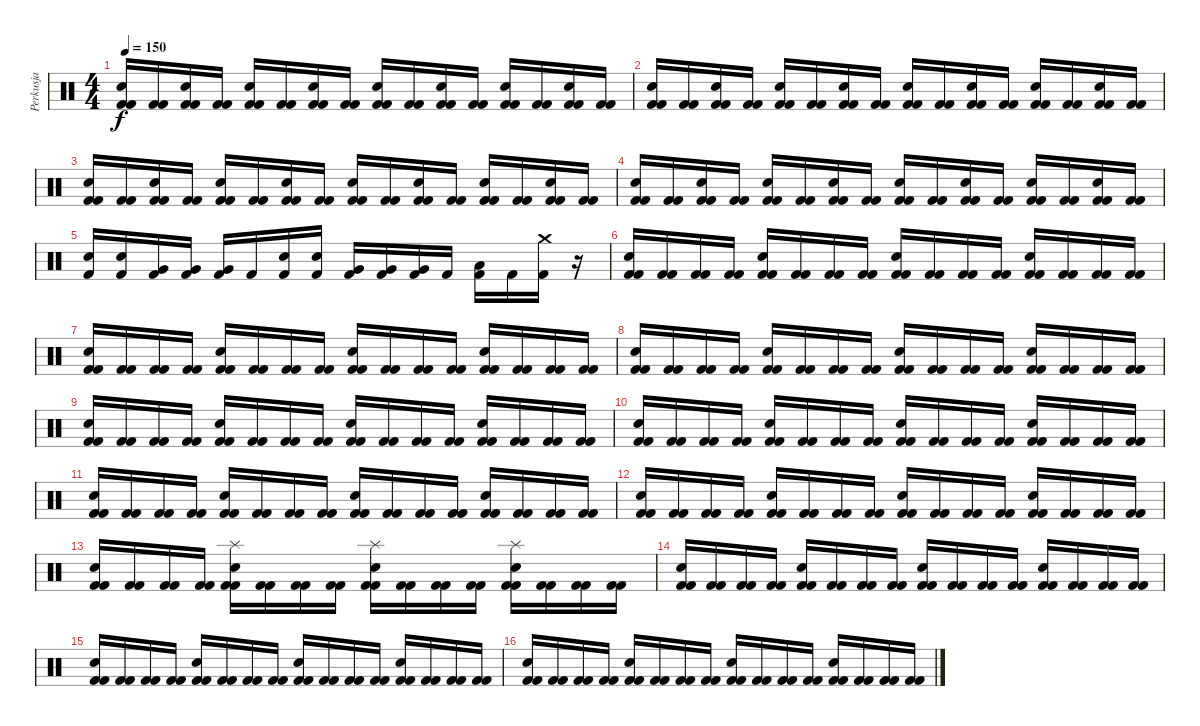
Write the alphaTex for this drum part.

\track ("Perkusja" "Perkusja") {instrument percussion}
\staff {score}
\articulation defaults
\ts (4 4)
\tempo 150
\clef neutral
\ks c
("Snare (hit) 2" "Kick (hit) 2" "Kick (hit) 2").16{dy f} ("Kick (hit) 2" "Kick (hit) 2").16 ("Snare (hit) 2" "Kick (hit) 2" "Kick (hit) 2").16 ("Kick (hit) 2" "Kick (hit) 2").16 ("Snare (hit) 2" "Kick (hit) 2" "Kick (hit) 2").16 ("Kick (hit) 2" "Kick (hit) 2").16 ("Snare (hit) 2" "Kick (hit) 2" "Kick (hit) 2").16 ("Kick (hit) 2" "Kick (hit) 2").16 ("Snare (hit) 2" "Kick (hit) 2" "Kick (hit) 2").16 ("Kick (hit) 2" "Kick (hit) 2").16 ("Snare (hit) 2" "Kick (hit) 2" "Kick (hit) 2").16 ("Kick (hit) 2" "Kick (hit) 2").16 ("Snare (hit) 2" "Kick (hit) 2" "Kick (hit) 2").16 ("Kick (hit) 2" "Kick (hit) 2").16 ("Snare (hit) 2" "Kick (hit) 2" "Kick (hit) 2").16 ("Kick (hit) 2" "Kick (hit) 2").16 |
("Snare (hit) 2" "Kick (hit) 2" "Kick (hit) 2").16 ("Kick (hit) 2" "Kick (hit) 2").16 ("Snare (hit) 2" "Kick (hit) 2" "Kick (hit) 2").16 ("Kick (hit) 2" "Kick (hit) 2").16 ("Snare (hit) 2" "Kick (hit) 2" "Kick (hit) 2").16 ("Kick (hit) 2" "Kick (hit) 2").16 ("Snare (hit) 2" "Kick (hit) 2" "Kick (hit) 2").16 ("Kick (hit) 2" "Kick (hit) 2").16 ("Snare (hit) 2" "Kick (hit) 2" "Kick (hit) 2").16 ("Kick (hit) 2" "Kick (hit) 2").16 ("Snare (hit) 2" "Kick (hit) 2" "Kick (hit) 2").16 ("Kick (hit) 2" "Kick (hit) 2").16 ("Snare (hit) 2" "Kick (hit) 2" "Kick (hit) 2").16 ("Kick (hit) 2" "Kick (hit) 2").16 ("Snare (hit) 2" "Kick (hit) 2" "Kick (hit) 2").16 ("Kick (hit) 2" "Kick (hit) 2").16 |
("Snare (hit) 2" "Kick (hit) 2" "Kick (hit) 2").16 ("Kick (hit) 2" "Kick (hit) 2").16 ("Snare (hit) 2" "Kick (hit) 2" "Kick (hit) 2").16 ("Kick (hit) 2" "Kick (hit) 2").16 ("Snare (hit) 2" "Kick (hit) 2" "Kick (hit) 2").16 ("Kick (hit) 2" "Kick (hit) 2").16 ("Snare (hit) 2" "Kick (hit) 2" "Kick (hit) 2").16 ("Kick (hit) 2" "Kick (hit) 2").16 ("Snare (hit) 2" "Kick (hit) 2" "Kick (hit) 2").16 ("Kick (hit) 2" "Kick (hit) 2").16 ("Snare (hit) 2" "Kick (hit) 2" "Kick (hit) 2").16 ("Kick (hit) 2" "Kick (hit) 2").16 ("Snare (hit) 2" "Kick (hit) 2" "Kick (hit) 2").16 ("Kick (hit) 2" "Kick (hit) 2").16 ("Snare (hit) 2" "Kick (hit) 2" "Kick (hit) 2").16 ("Kick (hit) 2" "Kick (hit) 2").16 |
("Snare (hit) 2" "Kick (hit) 2" "Kick (hit) 2").16 ("Kick (hit) 2" "Kick (hit) 2").16 ("Snare (hit) 2" "Kick (hit) 2" "Kick (hit) 2").16 ("Kick (hit) 2" "Kick (hit) 2").16 ("Snare (hit) 2" "Kick (hit) 2" "Kick (hit) 2").16 ("Kick (hit) 2" "Kick (hit) 2").16 ("Snare (hit) 2" "Kick (hit) 2" "Kick (hit) 2").16 ("Kick (hit) 2" "Kick (hit) 2").16 ("Snare (hit) 2" "Kick (hit) 2" "Kick (hit) 2").16 ("Kick (hit) 2" "Kick (hit) 2").16 ("Snare (hit) 2" "Kick (hit) 2" "Kick (hit) 2").16 ("Kick (hit) 2" "Kick (hit) 2").16 ("Snare (hit) 2" "Kick (hit) 2" "Kick (hit) 2").16 ("Kick (hit) 2" "Kick (hit) 2").16 ("Snare (hit) 2" "Kick (hit) 2" "Kick (hit) 2").16 ("Kick (hit) 2" "Kick (hit) 2").16 |
("Electric Snare (hit)" "Kick (hit) 2").16 ("Snare (hit) 2" "Kick (hit) 2").16 ("Very Low Tom (hit)" "Kick (hit) 2").16 ("Very Low Tom (hit)" "Kick (hit) 2").16 ("Very Low Tom (hit)" "Kick (hit) 2").16 "Kick (hit) 2".16 ("Electric Snare (hit)" "Kick (hit) 2").16 ("Snare (hit) 2" "Kick (hit) 2").16 ("Very Low Tom (hit)" "Kick (hit) 2").16 ("Very Low Tom (hit)" "Kick (hit) 2").16 ("Very Low Tom (hit)" "Kick (hit) 2").16 "Kick (hit) 2".16 ("Low Tom (hit)" "Kick (hit) 2").16 "Kick (hit) 2".16 ("Crash medium (hit)" "Kick (hit) 2").16 r.16 |
("Snare (hit) 2" "Kick (hit) 2" "Kick (hit) 2").16 ("Kick (hit) 2" "Kick (hit) 2").16 ("Kick (hit) 2" "Kick (hit) 2").16 ("Kick (hit) 2" "Kick (hit) 2").16 ("Electric Snare (hit)" "Kick (hit) 2" "Kick (hit) 2").16 ("Kick (hit) 2" "Kick (hit) 2").16 ("Kick (hit) 2" "Kick (hit) 2").16 ("Kick (hit) 2" "Kick (hit) 2").16 ("Snare (hit) 2" "Kick (hit) 2" "Kick (hit) 2").16 ("Kick (hit) 2" "Kick (hit) 2").16 ("Kick (hit) 2" "Kick (hit) 2").16 ("Kick (hit) 2" "Kick (hit) 2").16 ("Electric Snare (hit)" "Kick (hit) 2" "Kick (hit) 2").16 ("Kick (hit) 2" "Kick (hit) 2").16 ("Kick (hit) 2" "Kick (hit) 2").16 ("Kick (hit) 2" "Kick (hit) 2").16 |
("Snare (hit) 2" "Kick (hit) 2" "Kick (hit) 2").16 ("Kick (hit) 2" "Kick (hit) 2").16 ("Kick (hit) 2" "Kick (hit) 2").16 ("Kick (hit) 2" "Kick (hit) 2").16 ("Electric Snare (hit)" "Kick (hit) 2" "Kick (hit) 2").16 ("Kick (hit) 2" "Kick (hit) 2").16 ("Kick (hit) 2" "Kick (hit) 2").16 ("Kick (hit) 2" "Kick (hit) 2").16 ("Snare (hit) 2" "Kick (hit) 2" "Kick (hit) 2").16 ("Kick (hit) 2" "Kick (hit) 2").16 ("Kick (hit) 2" "Kick (hit) 2").16 ("Kick (hit) 2" "Kick (hit) 2").16 ("Electric Snare (hit)" "Kick (hit) 2" "Kick (hit) 2").16 ("Kick (hit) 2" "Kick (hit) 2").16 ("Kick (hit) 2" "Kick (hit) 2").16 ("Kick (hit) 2" "Kick (hit) 2").16 |
("Snare (hit) 2" "Kick (hit) 2" "Kick (hit) 2").16 ("Kick (hit) 2" "Kick (hit) 2").16 ("Kick (hit) 2" "Kick (hit) 2").16 ("Kick (hit) 2" "Kick (hit) 2").16 ("Electric Snare (hit)" "Kick (hit) 2" "Kick (hit) 2").16 ("Kick (hit) 2" "Kick (hit) 2").16 ("Kick (hit) 2" "Kick (hit) 2").16 ("Kick (hit) 2" "Kick (hit) 2").16 ("Snare (hit) 2" "Kick (hit) 2" "Kick (hit) 2").16 ("Kick (hit) 2" "Kick (hit) 2").16 ("Kick (hit) 2" "Kick (hit) 2").16 ("Kick (hit) 2" "Kick (hit) 2").16 ("Electric Snare (hit)" "Kick (hit) 2" "Kick (hit) 2").16 ("Kick (hit) 2" "Kick (hit) 2").16 ("Kick (hit) 2" "Kick (hit) 2").16 ("Kick (hit) 2" "Kick (hit) 2").16 |
("Snare (hit) 2" "Kick (hit) 2" "Kick (hit) 2").16 ("Kick (hit) 2" "Kick (hit) 2").16 ("Kick (hit) 2" "Kick (hit) 2").16 ("Kick (hit) 2" "Kick (hit) 2").16 ("Electric Snare (hit)" "Kick (hit) 2" "Kick (hit) 2").16 ("Kick (hit) 2" "Kick (hit) 2").16 ("Kick (hit) 2" "Kick (hit) 2").16 ("Kick (hit) 2" "Kick (hit) 2").16 ("Snare (hit) 2" "Kick (hit) 2" "Kick (hit) 2").16 ("Kick (hit) 2" "Kick (hit) 2").16 ("Kick (hit) 2" "Kick (hit) 2").16 ("Kick (hit) 2" "Kick (hit) 2").16 ("Electric Snare (hit)" "Kick (hit) 2" "Kick (hit) 2").16 ("Kick (hit) 2" "Kick (hit) 2").16 ("Kick (hit) 2" "Kick (hit) 2").16 ("Kick (hit) 2" "Kick (hit) 2").16 |
("Snare (hit) 2" "Kick (hit) 2" "Kick (hit) 2").16 ("Kick (hit) 2" "Kick (hit) 2").16 ("Kick (hit) 2" "Kick (hit) 2").16 ("Kick (hit) 2" "Kick (hit) 2").16 ("Electric Snare (hit)" "Kick (hit) 2" "Kick (hit) 2").16 ("Kick (hit) 2" "Kick (hit) 2").16 ("Kick (hit) 2" "Kick (hit) 2").16 ("Kick (hit) 2" "Kick (hit) 2").16 ("Snare (hit) 2" "Kick (hit) 2" "Kick (hit) 2").16 ("Kick (hit) 2" "Kick (hit) 2").16 ("Kick (hit) 2" "Kick (hit) 2").16 ("Kick (hit) 2" "Kick (hit) 2").16 ("Electric Snare (hit)" "Kick (hit) 2" "Kick (hit) 2").16 ("Kick (hit) 2" "Kick (hit) 2").16 ("Kick (hit) 2" "Kick (hit) 2").16 ("Kick (hit) 2" "Kick (hit) 2").16 |
("Snare (hit) 2" "Kick (hit) 2" "Kick (hit) 2").16 ("Kick (hit) 2" "Kick (hit) 2").16 ("Kick (hit) 2" "Kick (hit) 2").16 ("Kick (hit) 2" "Kick (hit) 2").16 ("Electric Snare (hit)" "Kick (hit) 2" "Kick (hit) 2").16 ("Kick (hit) 2" "Kick (hit) 2").16 ("Kick (hit) 2" "Kick (hit) 2").16 ("Kick (hit) 2" "Kick (hit) 2").16 ("Snare (hit) 2" "Kick (hit) 2" "Kick (hit) 2").16 ("Kick (hit) 2" "Kick (hit) 2").16 ("Kick (hit) 2" "Kick (hit) 2").16 ("Kick (hit) 2" "Kick (hit) 2").16 ("Electric Snare (hit)" "Kick (hit) 2" "Kick (hit) 2").16 ("Kick (hit) 2" "Kick (hit) 2").16 ("Kick (hit) 2" "Kick (hit) 2").16 ("Kick (hit) 2" "Kick (hit) 2").16 |
("Snare (hit) 2" "Kick (hit) 2" "Kick (hit) 2").16 ("Kick (hit) 2" "Kick (hit) 2").16 ("Kick (hit) 2" "Kick (hit) 2").16 ("Kick (hit) 2" "Kick (hit) 2").16 ("Electric Snare (hit)" "Kick (hit) 2" "Kick (hit) 2").16 ("Kick (hit) 2" "Kick (hit) 2").16 ("Kick (hit) 2" "Kick (hit) 2").16 ("Kick (hit) 2" "Kick (hit) 2").16 ("Snare (hit) 2" "Kick (hit) 2" "Kick (hit) 2").16 ("Kick (hit) 2" "Kick (hit) 2").16 ("Kick (hit) 2" "Kick (hit) 2").16 ("Kick (hit) 2" "Kick (hit) 2").16 ("Electric Snare (hit)" "Kick (hit) 2" "Kick (hit) 2").16 ("Kick (hit) 2" "Kick (hit) 2").16 ("Kick (hit) 2" "Kick (hit) 2").16 ("Kick (hit) 2" "Kick (hit) 2").16 |
("Snare (hit) 2" "Kick (hit) 2" "Kick (hit) 2").16 ("Kick (hit) 2" "Kick (hit) 2").16 ("Kick (hit) 2" "Kick (hit) 2").16 ("Kick (hit) 2" "Kick (hit) 2").16 ("Splash (hit)" "Electric Snare (hit)" "Kick (hit) 2" "Kick (hit) 2").16 ("Kick (hit) 2" "Kick (hit) 2").16 ("Kick (hit) 2" "Kick (hit) 2").16 ("Kick (hit) 2" "Kick (hit) 2").16 ("Splash (hit)" "Snare (hit) 2" "Kick (hit) 2" "Kick (hit) 2").16 ("Kick (hit) 2" "Kick (hit) 2").16 ("Kick (hit) 2" "Kick (hit) 2").16 ("Kick (hit) 2" "Kick (hit) 2").16 ("Splash (hit)" "Electric Snare (hit)" "Kick (hit) 2" "Kick (hit) 2").16 ("Kick (hit) 2" "Kick (hit) 2").16 ("Kick (hit) 2" "Kick (hit) 2").16 ("Kick (hit) 2" "Kick (hit) 2").16 |
("Snare (hit) 2" "Kick (hit) 2" "Kick (hit) 2").16 ("Kick (hit) 2" "Kick (hit) 2").16 ("Kick (hit) 2" "Kick (hit) 2").16 ("Kick (hit) 2" "Kick (hit) 2").16 ("Electric Snare (hit)" "Kick (hit) 2" "Kick (hit) 2").16 ("Kick (hit) 2" "Kick (hit) 2").16 ("Kick (hit) 2" "Kick (hit) 2").16 ("Kick (hit) 2" "Kick (hit) 2").16 ("Snare (hit) 2" "Kick (hit) 2" "Kick (hit) 2").16 ("Kick (hit) 2" "Kick (hit) 2").16 ("Kick (hit) 2" "Kick (hit) 2").16 ("Kick (hit) 2" "Kick (hit) 2").16 ("Electric Snare (hit)" "Kick (hit) 2" "Kick (hit) 2").16 ("Kick (hit) 2" "Kick (hit) 2").16 ("Kick (hit) 2" "Kick (hit) 2").16 ("Kick (hit) 2" "Kick (hit) 2").16 |
("Snare (hit) 2" "Kick (hit) 2" "Kick (hit) 2").16 ("Kick (hit) 2" "Kick (hit) 2").16 ("Kick (hit) 2" "Kick (hit) 2").16 ("Kick (hit) 2" "Kick (hit) 2").16 ("Electric Snare (hit)" "Kick (hit) 2" "Kick (hit) 2").16 ("Kick (hit) 2" "Kick (hit) 2").16 ("Kick (hit) 2" "Kick (hit) 2").16 ("Kick (hit) 2" "Kick (hit) 2").16 ("Snare (hit) 2" "Kick (hit) 2" "Kick (hit) 2").16 ("Kick (hit) 2" "Kick (hit) 2").16 ("Kick (hit) 2" "Kick (hit) 2").16 ("Kick (hit) 2" "Kick (hit) 2").16 ("Electric Snare (hit)" "Kick (hit) 2" "Kick (hit) 2").16 ("Kick (hit) 2" "Kick (hit) 2").16 ("Kick (hit) 2" "Kick (hit) 2").16 ("Kick (hit) 2" "Kick (hit) 2").16 |
("Snare (hit) 2" "Kick (hit) 2" "Kick (hit) 2").16 ("Kick (hit) 2" "Kick (hit) 2").16 ("Kick (hit) 2" "Kick (hit) 2").16 ("Kick (hit) 2" "Kick (hit) 2").16 ("Electric Snare (hit)" "Kick (hit) 2" "Kick (hit) 2").16 ("Kick (hit) 2" "Kick (hit) 2").16 ("Kick (hit) 2" "Kick (hit) 2").16 ("Kick (hit) 2" "Kick (hit) 2").16 ("Snare (hit) 2" "Kick (hit) 2" "Kick (hit) 2").16 ("Kick (hit) 2" "Kick (hit) 2").16 ("Kick (hit) 2" "Kick (hit) 2").16 ("Kick (hit) 2" "Kick (hit) 2").16 ("Electric Snare (hit)" "Kick (hit) 2" "Kick (hit) 2").16 ("Kick (hit) 2" "Kick (hit) 2").16 ("Kick (hit) 2" "Kick (hit) 2").16 ("Kick (hit) 2" "Kick (hit) 2").16
